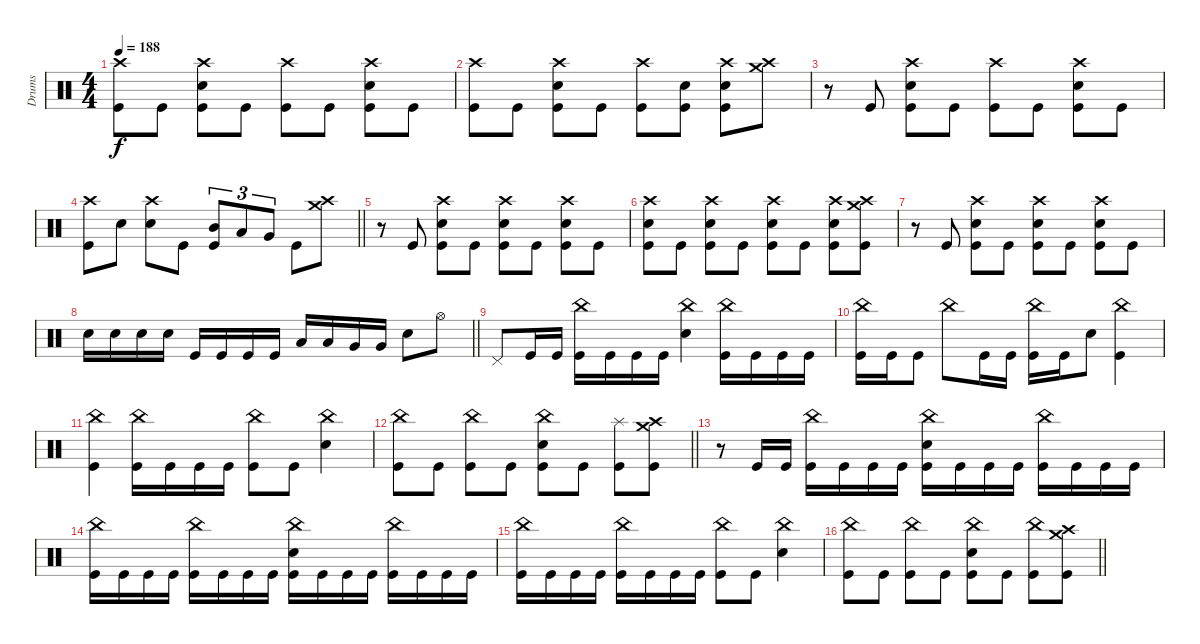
\track ("Drums" "Drums") {instrument percussion}
\staff
\articulation defaults
\ts (4 4)
\tempo 188
\clef neutral
\ks c
("Crash high (hit)" "Kick (hit)").8{dy f} "Kick (hit)".8 ("Crash high (hit)" "Electric Snare (hit)" "Kick (hit)").8 "Kick (hit)".8 ("Crash high (hit)" "Kick (hit)").8 "Kick (hit)".8 ("Crash high (hit)" "Electric Snare (hit)" "Kick (hit)").8 "Kick (hit)".8 |
("Crash high (hit)" "Kick (hit)").8 "Kick (hit)".8 ("Crash high (hit)" "Electric Snare (hit)" "Kick (hit)").8 "Kick (hit)".8 ("Crash high (hit)" "Kick (hit)").8 ("Electric Snare (hit)" "Kick (hit)").8 ("Crash high (hit)" "Electric Snare (hit)" "Kick (hit)").8 ("Crash high (hit)" "Crash medium (hit)").8 |
r.8 "Kick (hit)".8 ("Crash high (hit)" "Electric Snare (hit)" "Kick (hit)").8 "Kick (hit)".8 ("Crash high (hit)" "Kick (hit)").8 "Kick (hit)".8 ("Crash high (hit)" "Electric Snare (hit)" "Kick (hit)").8 "Kick (hit)".8 |
\barLineRight lightlight
("Crash high (hit)" "Kick (hit)").8 "Electric Snare (hit)".8 ("Crash high (hit)" "Electric Snare (hit)").8 "Kick (hit)".8 ("Mid Tom (hit)" "Kick (hit)").8{tu (3 2)} "Low Tom (hit)".8{tu (3 2)} "Very Low Tom (hit)".8{tu (3 2)} "Kick (hit)".8 ("Crash high (hit)" "Crash medium (hit)").8 |
r.8 "Kick (hit)".8 ("Crash high (hit)" "Electric Snare (hit)" "Kick (hit)").8 "Kick (hit)".8 ("Crash high (hit)" "Electric Snare (hit)" "Kick (hit)").8 "Kick (hit)".8 ("Crash high (hit)" "Electric Snare (hit)" "Kick (hit)").8 "Kick (hit)".8 |
("Crash high (hit)" "Electric Snare (hit)" "Kick (hit)").8 "Kick (hit)".8 ("Crash high (hit)" "Electric Snare (hit)" "Kick (hit)").8 "Kick (hit)".8 ("Crash high (hit)" "Electric Snare (hit)" "Kick (hit)").8 "Kick (hit)".8 ("Crash high (hit)" "Electric Snare (hit)" "Kick (hit)").8 ("Crash high (hit)" "Crash medium (hit)" "Kick (hit)").8 |
r.8 "Kick (hit)".8 ("Crash high (hit)" "Electric Snare (hit)" "Kick (hit)").8 "Kick (hit)".8 ("Crash high (hit)" "Electric Snare (hit)" "Kick (hit)").8 "Kick (hit)".8 ("Crash high (hit)" "Electric Snare (hit)" "Kick (hit)").8 "Kick (hit)".8 |
\barLineRight lightlight "Electric Snare (hit)".16 "Electric Snare (hit)".16 "Electric Snare (hit)".16 "Electric Snare (hit)".16 "Kick (hit)".16 "Kick (hit)".16 "Kick (hit)".16 "Kick (hit)".16 "Low Tom (hit)".16 "Low Tom (hit)".16 "Very Low Tom (hit)".16 "Very Low Tom (hit)".16 "Electric Snare (hit)".8 "Hi-Hat (open)".8
|
\section ("" "")
"Pedal Hi-Hat (hit)".8 "Kick (hit)".16 "Kick (hit)".16 ("China (hit)" "Kick (hit)").16 "Kick (hit)".16 "Kick (hit)".16 "Kick (hit)".16 ("China (hit)" "Electric Snare (hit)").4 ("China (hit)" "Kick (hit)").16 "Kick (hit)".16 "Kick (hit)".16 "Kick (hit)".16 |
("China (hit)" "Kick (hit)").16 "Kick (hit)".16 "Kick (hit)".8 "China (hit)".8 "Kick (hit)".16 "Kick (hit)".16 ("China (hit)" "Kick (hit)").16 "Kick (hit)".16 "Electric Snare (hit)".8 ("China (hit)" "Kick (hit)").4 |
("China (hit)" "Kick (hit)").4 ("China (hit)" "Kick (hit)").16 "Kick (hit)".16 "Kick (hit)".16 "Kick (hit)".16 ("China (hit)" "Kick (hit)").8 "Kick (hit)".8 ("China (hit)" "Electric Snare (hit)").4 |
\barLineRight lightlight
("China (hit)" "Kick (hit)").8 "Kick (hit)".8 ("China (hit)" "Kick (hit)").8 "Kick (hit)".8 ("China (hit)" "Electric Snare (hit)" "Kick (hit)").8 "Kick (hit)".8 ("Splash (hit)" "Kick (hit)").8 ("Crash high (hit)" "Crash medium (hit)" "Kick (hit)").8 |
r.8 "Kick (hit)".16 "Kick (hit)".16 ("China (hit)" "Kick (hit)").16 "Kick (hit)".16 "Kick (hit)".16 "Kick (hit)".16 ("China (hit)" "Electric Snare (hit)" "Kick (hit)").16 "Kick (hit)".16 "Kick (hit)".16 "Kick (hit)".16 ("China (hit)" "Kick (hit)").16 "Kick (hit)".16 "Kick (hit)".16 "Kick (hit)".16 |
("China (hit)" "Kick (hit)").16 "Kick (hit)".16 "Kick (hit)".16 "Kick (hit)".16 ("China (hit)" "Kick (hit)").16 "Kick (hit)".16 "Kick (hit)".16 "Kick (hit)".16 ("China (hit)" "Electric Snare (hit)" "Kick (hit)").16 "Kick (hit)".16 "Kick (hit)".16 "Kick (hit)".16 ("China (hit)" "Kick (hit)").16 "Kick (hit)".16 "Kick (hit)".16 "Kick (hit)".16 |
("China (hit)" "Kick (hit)").16 "Kick (hit)".16 "Kick (hit)".16 "Kick (hit)".16 ("China (hit)" "Kick (hit)").16 "Kick (hit)".16 "Kick (hit)".16 "Kick (hit)".16 ("China (hit)" "Kick (hit)").8 "Kick (hit)".8 ("China (hit)" "Electric Snare (hit)").4 |
\barLineRight lightlight
("China (hit)" "Kick (hit)").8 "Kick (hit)".8 ("China (hit)" "Kick (hit)").8 "Kick (hit)".8 ("China (hit)" "Electric Snare (hit)" "Kick (hit)").8 "Kick (hit)".8 ("China (hit)" "Kick (hit)").8 ("Crash high (hit)" "Crash medium (hit)" "Kick (hit)").8
